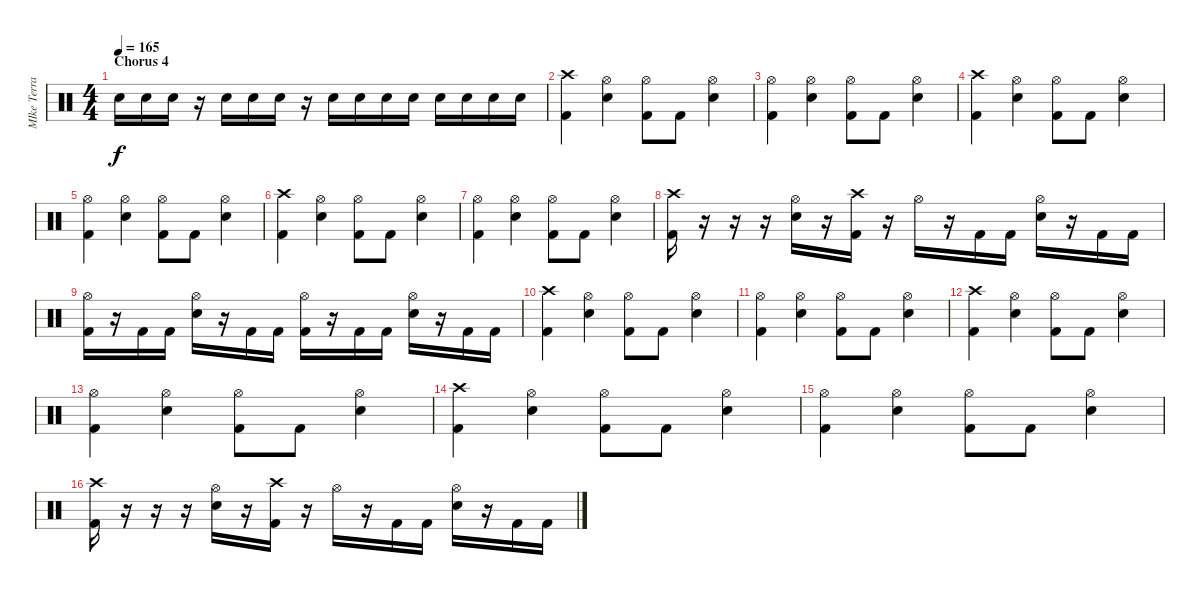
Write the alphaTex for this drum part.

\track ("MIke Terrana - Batteria" "MIke Terra") {instrument percussion}
\staff {score}
\articulation defaults
\ts (4 4)
\section ("" "Chorus 4")
\tempo 165
\clef neutral
\ks c "Electric Snare (hit)".16{dy f} "Electric Snare (hit)".16 "Electric Snare (hit)".16
r.16 "Electric Snare (hit)".16 "Electric Snare (hit)".16 "Electric Snare (hit)".16 r.16 "Electric Snare (hit)".16 "Electric Snare (hit)".16 "Electric Snare (hit)".16 "Electric Snare (hit)".16 "Electric Snare (hit)".16 "Electric Snare (hit)".16 "Electric Snare (hit)".16 "Electric Snare (hit)".16 |
("Kick (hit) 2" "Crash high (hit)").4 ("Electric Snare (hit)" "Hi-Hat (open)").4 ("Kick (hit) 2" "Hi-Hat (open)").8 "Kick (hit) 2".8 ("Electric Snare (hit)" "Hi-Hat (open)").4 |
("Kick (hit) 2" "Hi-Hat (open)").4 ("Electric Snare (hit)" "Hi-Hat (open)").4 ("Kick (hit) 2" "Hi-Hat (open)").8 "Kick (hit) 2".8 ("Electric Snare (hit)" "Hi-Hat (open)").4 |
("Kick (hit) 2" "Crash high (hit)").4 ("Electric Snare (hit)" "Hi-Hat (open)").4 ("Kick (hit) 2" "Hi-Hat (open)").8 "Kick (hit) 2".8 ("Electric Snare (hit)" "Hi-Hat (open)").4 |
("Kick (hit) 2" "Hi-Hat (open)").4 ("Electric Snare (hit)" "Hi-Hat (open)").4 ("Kick (hit) 2" "Hi-Hat (open)").8 "Kick (hit) 2".8 ("Electric Snare (hit)" "Hi-Hat (open)").4 |
("Kick (hit) 2" "Crash high (hit)").4 ("Electric Snare (hit)" "Hi-Hat (open)").4 ("Kick (hit) 2" "Hi-Hat (open)").8 "Kick (hit) 2".8 ("Electric Snare (hit)" "Hi-Hat (open)").4 |
("Kick (hit) 2" "Hi-Hat (open)").4 ("Electric Snare (hit)" "Hi-Hat (open)").4 ("Kick (hit) 2" "Hi-Hat (open)").8 "Kick (hit) 2".8 ("Electric Snare (hit)" "Hi-Hat (open)").4 |
("Kick (hit) 2" "Crash high (hit)").16 r.16 r.16 r.16 ("Electric Snare (hit)" "Hi-Hat (open)").16 r.16 ("Kick (hit) 2" "Crash high (hit)").16 r.16 "Hi-Hat (open)".16 r.16 "Kick (hit) 2".16 "Kick (hit) 2".16 ("Electric Snare (hit)" "Hi-Hat (open)").16 r.16 "Kick (hit) 2".16 "Kick (hit) 2".16 |
("Kick (hit) 2" "Hi-Hat (open)").16 r.16 "Kick (hit) 2".16 "Kick (hit) 2".16 ("Electric Snare (hit)" "Hi-Hat (open)").16 r.16 "Kick (hit) 2".16 "Kick (hit) 2".16 ("Kick (hit) 2" "Hi-Hat (open)").16 r.16 "Kick (hit) 2".16 "Kick (hit) 2".16 ("Electric Snare (hit)" "Hi-Hat (open)").16 r.16 "Kick (hit) 2".16 "Kick (hit) 2".16 |
("Kick (hit) 2" "Crash high (hit)").4 ("Electric Snare (hit)" "Hi-Hat (open)").4 ("Kick (hit) 2" "Hi-Hat (open)").8 "Kick (hit) 2".8 ("Electric Snare (hit)" "Hi-Hat (open)").4 |
("Kick (hit) 2" "Hi-Hat (open)").4 ("Electric Snare (hit)" "Hi-Hat (open)").4 ("Kick (hit) 2" "Hi-Hat (open)").8 "Kick (hit) 2".8 ("Electric Snare (hit)" "Hi-Hat (open)").4 |
("Kick (hit) 2" "Crash high (hit)").4 ("Electric Snare (hit)" "Hi-Hat (open)").4 ("Kick (hit) 2" "Hi-Hat (open)").8 "Kick (hit) 2".8 ("Electric Snare (hit)" "Hi-Hat (open)").4 |
("Kick (hit) 2" "Hi-Hat (open)").4 ("Electric Snare (hit)" "Hi-Hat (open)").4 ("Kick (hit) 2" "Hi-Hat (open)").8 "Kick (hit) 2".8 ("Electric Snare (hit)" "Hi-Hat (open)").4 |
("Kick (hit) 2" "Crash high (hit)").4 ("Electric Snare (hit)" "Hi-Hat (open)").4 ("Kick (hit) 2" "Hi-Hat (open)").8 "Kick (hit) 2".8 ("Electric Snare (hit)" "Hi-Hat (open)").4 |
("Kick (hit) 2" "Hi-Hat (open)").4 ("Electric Snare (hit)" "Hi-Hat (open)").4 ("Kick (hit) 2" "Hi-Hat (open)").8 "Kick (hit) 2".8 ("Electric Snare (hit)" "Hi-Hat (open)").4 |
("Kick (hit) 2" "Crash high (hit)").16 r.16 r.16 r.16 ("Electric Snare (hit)" "Hi-Hat (open)").16 r.16 ("Kick (hit) 2" "Crash high (hit)").16 r.16 "Hi-Hat (open)".16 r.16 "Kick (hit) 2".16 "Kick (hit) 2".16 ("Electric Snare (hit)" "Hi-Hat (open)").16 r.16 "Kick (hit) 2".16 "Kick (hit) 2".16
